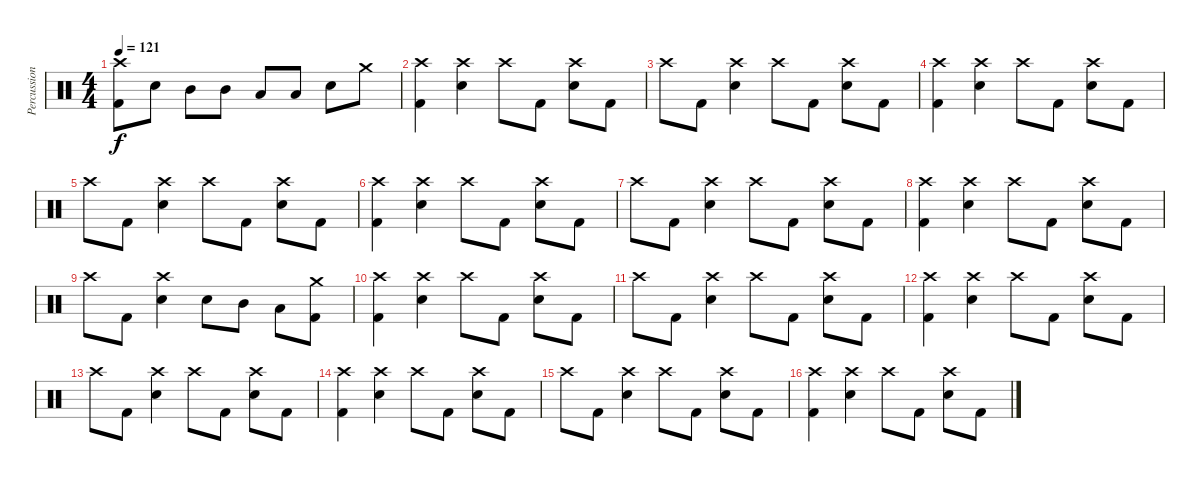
\track ("Percussion" "Percussion") {instrument percussion}
\staff {score}
\articulation defaults
\ts (4 4)
\tempo 121
\clef neutral
\ks c
("Crash high (hit)" "Kick (hit) 2").8{dy f} "Snare (hit) 2".8 "Mid Tom (hit)".8 "Mid Tom (hit)".8 "Low Tom (hit)".8 "Low Tom (hit)".8 "Snare (hit) 2".8 "Crash medium (hit)".8 |
("Crash high (hit)" "Kick (hit) 2").4 ("Crash high (hit)" "Snare (hit) 2").4 "Crash high (hit)".8 "Kick (hit) 2".8 ("Crash high (hit)" "Snare (hit) 2").8 "Kick (hit) 2".8 |
"Crash high (hit)".8 "Kick (hit) 2".8 ("Crash high (hit)" "Snare (hit) 2").4 "Crash high (hit)".8 "Kick (hit) 2".8 ("Crash high (hit)" "Snare (hit) 2").8 "Kick (hit) 2".8 |
("Crash high (hit)" "Kick (hit) 2").4 ("Crash high (hit)" "Snare (hit) 2").4 "Crash high (hit)".8 "Kick (hit) 2".8 ("Crash high (hit)" "Snare (hit) 2").8 "Kick (hit) 2".8 |
"Crash high (hit)".8 "Kick (hit) 2".8 ("Crash high (hit)" "Snare (hit) 2").4 "Crash high (hit)".8 "Kick (hit) 2".8 ("Crash high (hit)" "Snare (hit) 2").8 "Kick (hit) 2".8 |
("Crash high (hit)" "Kick (hit) 2").4 ("Crash high (hit)" "Snare (hit) 2").4 "Crash high (hit)".8 "Kick (hit) 2".8 ("Crash high (hit)" "Snare (hit) 2").8 "Kick (hit) 2".8 |
"Crash high (hit)".8 "Kick (hit) 2".8 ("Crash high (hit)" "Snare (hit) 2").4 "Crash high (hit)".8 "Kick (hit) 2".8 ("Crash high (hit)" "Snare (hit) 2").8 "Kick (hit) 2".8 |
("Crash high (hit)" "Kick (hit) 2").4 ("Crash high (hit)" "Snare (hit) 2").4 "Crash high (hit)".8 "Kick (hit) 2".8 ("Crash high (hit)" "Snare (hit) 2").8 "Kick (hit) 2".8 |
"Crash high (hit)".8 "Kick (hit) 2".8 ("Crash high (hit)" "Snare (hit) 2").4 "Snare (hit) 2".8 "Mid Tom (hit)".8 "Low Tom (hit)".8 ("Crash medium (hit)" "Kick (hit) 2").8 |
("Crash high (hit)" "Kick (hit) 2").4 ("Crash high (hit)" "Snare (hit) 2").4 "Crash high (hit)".8 "Kick (hit) 2".8 ("Crash high (hit)" "Snare (hit) 2").8 "Kick (hit) 2".8 |
"Crash high (hit)".8 "Kick (hit) 2".8 ("Crash high (hit)" "Snare (hit) 2").4 "Crash high (hit)".8 "Kick (hit) 2".8 ("Crash high (hit)" "Snare (hit) 2").8 "Kick (hit) 2".8 |
("Crash high (hit)" "Kick (hit) 2").4 ("Crash high (hit)" "Snare (hit) 2").4 "Crash high (hit)".8 "Kick (hit) 2".8 ("Crash high (hit)" "Snare (hit) 2").8 "Kick (hit) 2".8 |
"Crash high (hit)".8 "Kick (hit) 2".8 ("Crash high (hit)" "Snare (hit) 2").4 "Crash high (hit)".8 "Kick (hit) 2".8 ("Crash high (hit)" "Snare (hit) 2").8 "Kick (hit) 2".8 |
("Crash high (hit)" "Kick (hit) 2").4 ("Crash high (hit)" "Snare (hit) 2").4 "Crash high (hit)".8 "Kick (hit) 2".8 ("Crash high (hit)" "Snare (hit) 2").8 "Kick (hit) 2".8 |
"Crash high (hit)".8 "Kick (hit) 2".8 ("Crash high (hit)" "Snare (hit) 2").4 "Crash high (hit)".8 "Kick (hit) 2".8 ("Crash high (hit)" "Snare (hit) 2").8 "Kick (hit) 2".8 |
("Crash high (hit)" "Kick (hit) 2").4 ("Crash high (hit)" "Snare (hit) 2").4 "Crash high (hit)".8 "Kick (hit) 2".8 ("Crash high (hit)" "Snare (hit) 2").8 "Kick (hit) 2".8
